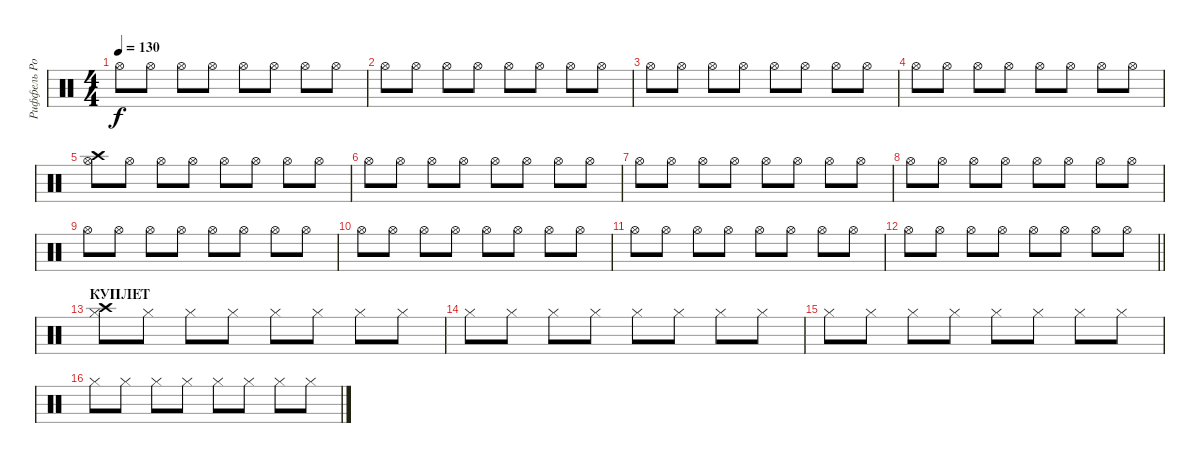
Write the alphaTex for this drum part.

\track ("Риффель Роман (хэты)" "Риффель Ро") {instrument percussion}
\staff {score}
\articulation defaults
\ts (4 4)
\tempo 130
\clef neutral
\ks c "Hi-Hat (open)".8{dy f} "Hi-Hat (open)".8 "Hi-Hat (open)".8 "Hi-Hat (open)".8 "Hi-Hat (open)".8 "Hi-Hat (open)".8 "Hi-Hat (open)".8 "Hi-Hat (open)".8
|
"Hi-Hat (open)".8 "Hi-Hat (open)".8 "Hi-Hat (open)".8 "Hi-Hat (open)".8 "Hi-Hat (open)".8 "Hi-Hat (open)".8 "Hi-Hat (open)".8 "Hi-Hat (open)".8 |
"Hi-Hat (open)".8 "Hi-Hat (open)".8 "Hi-Hat (open)".8 "Hi-Hat (open)".8 "Hi-Hat (open)".8 "Hi-Hat (open)".8 "Hi-Hat (open)".8 "Hi-Hat (open)".8 |
"Hi-Hat (open)".8 "Hi-Hat (open)".8 "Hi-Hat (open)".8 "Hi-Hat (open)".8 "Hi-Hat (open)".8 "Hi-Hat (open)".8 "Hi-Hat (open)".8 "Hi-Hat (open)".8 |
("Crash high (hit)" "Hi-Hat (open)").8 "Hi-Hat (open)".8 "Hi-Hat (open)".8 "Hi-Hat (open)".8 "Hi-Hat (open)".8 "Hi-Hat (open)".8 "Hi-Hat (open)".8 "Hi-Hat (open)".8 |
"Hi-Hat (open)".8 "Hi-Hat (open)".8 "Hi-Hat (open)".8 "Hi-Hat (open)".8 "Hi-Hat (open)".8 "Hi-Hat (open)".8 "Hi-Hat (open)".8 "Hi-Hat (open)".8 |
"Hi-Hat (open)".8 "Hi-Hat (open)".8 "Hi-Hat (open)".8 "Hi-Hat (open)".8 "Hi-Hat (open)".8 "Hi-Hat (open)".8 "Hi-Hat (open)".8 "Hi-Hat (open)".8 |
"Hi-Hat (open)".8 "Hi-Hat (open)".8 "Hi-Hat (open)".8 "Hi-Hat (open)".8 "Hi-Hat (open)".8 "Hi-Hat (open)".8 "Hi-Hat (open)".8 "Hi-Hat (open)".8 |
"Hi-Hat (open)".8 "Hi-Hat (open)".8 "Hi-Hat (open)".8 "Hi-Hat (open)".8 "Hi-Hat (open)".8 "Hi-Hat (open)".8 "Hi-Hat (open)".8 "Hi-Hat (open)".8 |
"Hi-Hat (open)".8 "Hi-Hat (open)".8 "Hi-Hat (open)".8 "Hi-Hat (open)".8 "Hi-Hat (open)".8 "Hi-Hat (open)".8 "Hi-Hat (open)".8 "Hi-Hat (open)".8 |
"Hi-Hat (open)".8 "Hi-Hat (open)".8 "Hi-Hat (open)".8 "Hi-Hat (open)".8 "Hi-Hat (open)".8 "Hi-Hat (open)".8 "Hi-Hat (open)".8 "Hi-Hat (open)".8 |
\barLineRight lightlight "Hi-Hat (open)".8 "Hi-Hat (open)".8 "Hi-Hat (open)".8 "Hi-Hat (open)".8 "Hi-Hat (open)".8 "Hi-Hat (open)".8 "Hi-Hat (open)".8 "Hi-Hat (open)".8
|
\section ("" "КУПЛЕТ")
("Crash high (hit)" "Hi-Hat (closed)").8 "Hi-Hat (closed)".8 "Hi-Hat (closed)".8 "Hi-Hat (closed)".8 "Hi-Hat (closed)".8 "Hi-Hat (closed)".8 "Hi-Hat (closed)".8 "Hi-Hat (closed)".8 |
"Hi-Hat (closed)".8 "Hi-Hat (closed)".8 "Hi-Hat (closed)".8 "Hi-Hat (closed)".8 "Hi-Hat (closed)".8 "Hi-Hat (closed)".8 "Hi-Hat (closed)".8 "Hi-Hat (closed)".8 |
"Hi-Hat (closed)".8 "Hi-Hat (closed)".8 "Hi-Hat (closed)".8 "Hi-Hat (closed)".8 "Hi-Hat (closed)".8 "Hi-Hat (closed)".8 "Hi-Hat (closed)".8 "Hi-Hat (closed)".8 |
"Hi-Hat (closed)".8 "Hi-Hat (closed)".8 "Hi-Hat (closed)".8 "Hi-Hat (closed)".8 "Hi-Hat (closed)".8 "Hi-Hat (closed)".8 "Hi-Hat (closed)".8 "Hi-Hat (closed)".8
